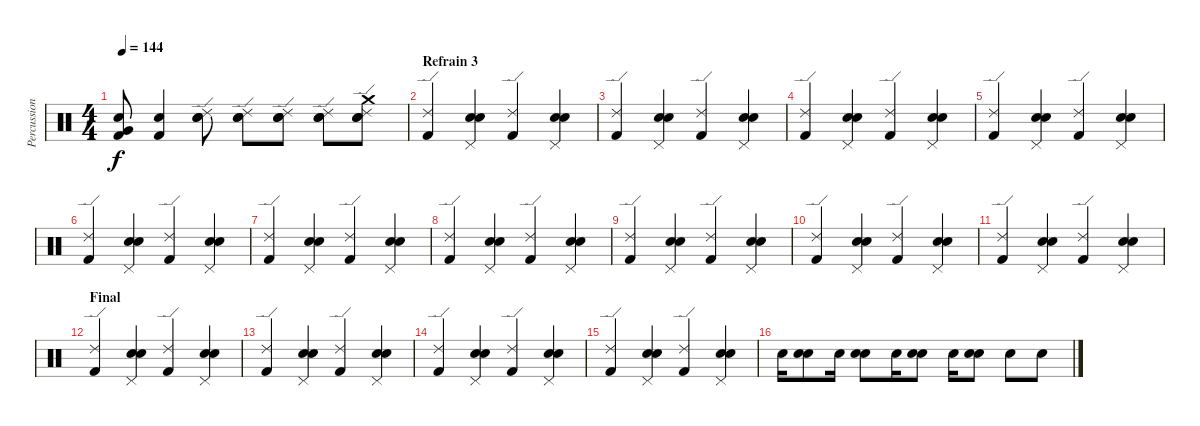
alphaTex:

\track ("Percussions" "Percussion") {instrument percussion}
\staff {score}
\articulation defaults
\ts (4 4)
\tempo 144
\clef neutral
\ks c
("Kick (hit) 2" "Very Low Tom (hit)" "Electric Snare (hit)").8{dy f} ("Kick (hit) 2" "Electric Snare (hit)").4 ("Snare (hit) 2" "Electric Snare (hit)" "Ride (edge) 2").8 ("Snare (hit) 2" "Electric Snare (hit)" "Ride (edge) 2").8 ("Snare (hit) 2" "Electric Snare (hit)" "Ride (edge) 2").8 ("Snare (hit) 2" "Electric Snare (hit)" "Ride (edge) 2").8 ("Snare (hit) 2" "Electric Snare (hit)" "Ride (edge) 2" "Crash medium (hit)").8 |
\section ("" "Refrain 3")
("Kick (hit) 2" "Ride (edge) 2").4 ("Snare (hit) 2" "Electric Snare (hit)" "Pedal Hi-Hat (hit)").4 ("Kick (hit) 2" "Ride (edge) 2").4 ("Snare (hit) 2" "Electric Snare (hit)" "Pedal Hi-Hat (hit)").4 |
("Kick (hit) 2" "Ride (edge) 2").4 ("Snare (hit) 2" "Electric Snare (hit)" "Pedal Hi-Hat (hit)").4 ("Kick (hit) 2" "Ride (edge) 2").4 ("Snare (hit) 2" "Electric Snare (hit)" "Pedal Hi-Hat (hit)").4 |
("Kick (hit) 2" "Ride (edge) 2").4 ("Snare (hit) 2" "Electric Snare (hit)" "Pedal Hi-Hat (hit)").4 ("Kick (hit) 2" "Ride (edge) 2").4 ("Snare (hit) 2" "Electric Snare (hit)" "Pedal Hi-Hat (hit)").4 |
("Kick (hit) 2" "Ride (edge) 2").4 ("Snare (hit) 2" "Electric Snare (hit)" "Pedal Hi-Hat (hit)").4 ("Kick (hit) 2" "Ride (edge) 2").4 ("Snare (hit) 2" "Electric Snare (hit)" "Pedal Hi-Hat (hit)").4 |
("Kick (hit) 2" "Ride (edge) 2").4 ("Snare (hit) 2" "Electric Snare (hit)" "Pedal Hi-Hat (hit)").4 ("Kick (hit) 2" "Ride (edge) 2").4 ("Snare (hit) 2" "Electric Snare (hit)" "Pedal Hi-Hat (hit)").4 |
("Kick (hit) 2" "Ride (edge) 2").4 ("Snare (hit) 2" "Electric Snare (hit)" "Pedal Hi-Hat (hit)").4 ("Kick (hit) 2" "Ride (edge) 2").4 ("Snare (hit) 2" "Electric Snare (hit)" "Pedal Hi-Hat (hit)").4 |
("Kick (hit) 2" "Ride (edge) 2").4 ("Snare (hit) 2" "Electric Snare (hit)" "Pedal Hi-Hat (hit)").4 ("Kick (hit) 2" "Ride (edge) 2").4 ("Snare (hit) 2" "Electric Snare (hit)" "Pedal Hi-Hat (hit)").4 |
("Kick (hit) 2" "Ride (edge) 2").4 ("Snare (hit) 2" "Electric Snare (hit)" "Pedal Hi-Hat (hit)").4 ("Kick (hit) 2" "Ride (edge) 2").4 ("Snare (hit) 2" "Electric Snare (hit)" "Pedal Hi-Hat (hit)").4 |
("Kick (hit) 2" "Ride (edge) 2").4 ("Snare (hit) 2" "Electric Snare (hit)" "Pedal Hi-Hat (hit)").4 ("Kick (hit) 2" "Ride (edge) 2").4 ("Snare (hit) 2" "Electric Snare (hit)" "Pedal Hi-Hat (hit)").4 |
("Kick (hit) 2" "Ride (edge) 2").4 ("Snare (hit) 2" "Electric Snare (hit)" "Pedal Hi-Hat (hit)").4 ("Kick (hit) 2" "Ride (edge) 2").4 ("Snare (hit) 2" "Electric Snare (hit)" "Pedal Hi-Hat (hit)").4 |
\section ("" "Final")
("Kick (hit) 2" "Ride (edge) 2").4 ("Snare (hit) 2" "Electric Snare (hit)" "Pedal Hi-Hat (hit)").4 ("Kick (hit) 2" "Ride (edge) 2").4 ("Snare (hit) 2" "Electric Snare (hit)" "Pedal Hi-Hat (hit)").4 |
("Kick (hit) 2" "Ride (edge) 2").4 ("Snare (hit) 2" "Electric Snare (hit)" "Pedal Hi-Hat (hit)").4 ("Kick (hit) 2" "Ride (edge) 2").4 ("Snare (hit) 2" "Electric Snare (hit)" "Pedal Hi-Hat (hit)").4 |
("Kick (hit) 2" "Ride (edge) 2").4 ("Snare (hit) 2" "Electric Snare (hit)" "Pedal Hi-Hat (hit)").4 ("Kick (hit) 2" "Ride (edge) 2").4 ("Snare (hit) 2" "Electric Snare (hit)" "Pedal Hi-Hat (hit)").4 |
("Kick (hit) 2" "Ride (edge) 2").4 ("Snare (hit) 2" "Electric Snare (hit)" "Pedal Hi-Hat (hit)").4 ("Kick (hit) 2" "Ride (edge) 2").4 ("Snare (hit) 2" "Electric Snare (hit)" "Pedal Hi-Hat (hit)").4 |
"Snare (hit) 2".16 ("Snare (hit) 2" "Electric Snare (hit)").8 "Snare (hit) 2".16 ("Snare (hit) 2" "Electric Snare (hit)").8 "Snare (hit) 2".16 ("Snare (hit) 2" "Electric Snare (hit)").8 "Snare (hit) 2".16 ("Snare (hit) 2" "Electric Snare (hit)").8 "Electric Snare (hit)".8 "Electric Snare (hit)".8
